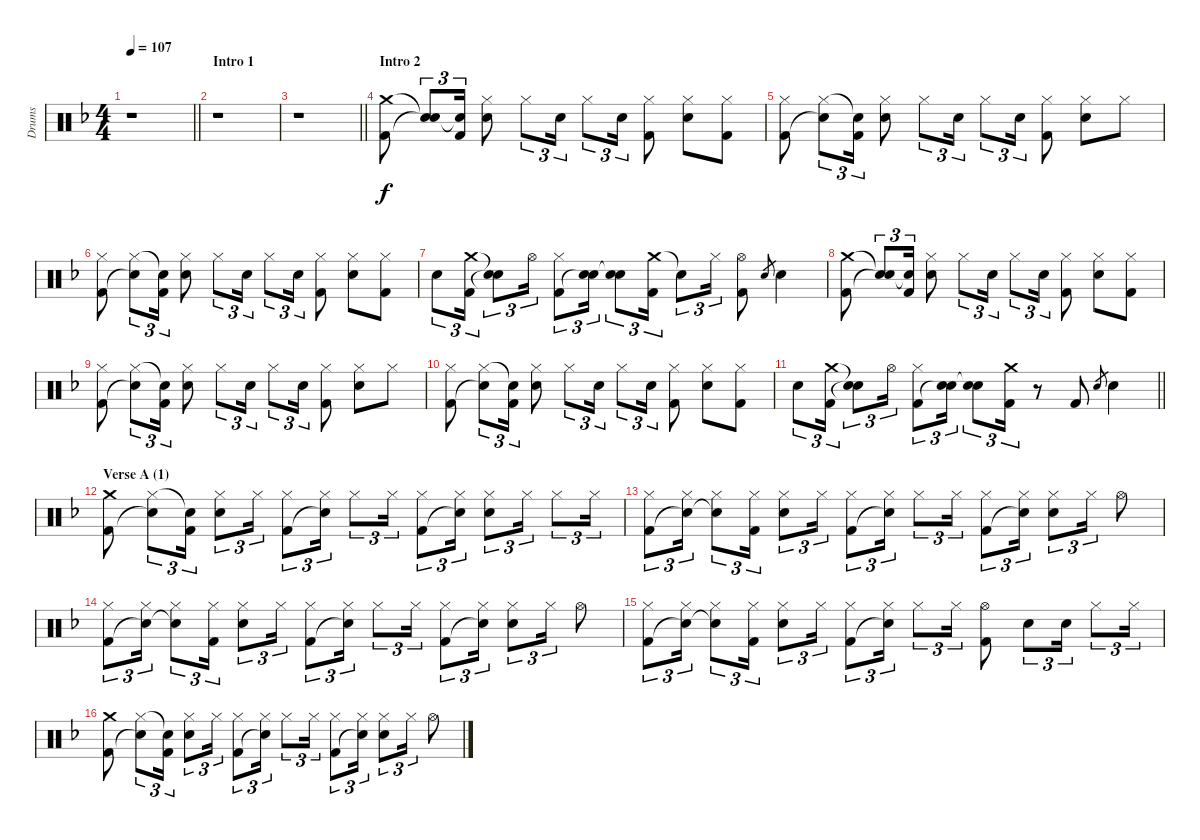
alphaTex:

\track ("Drums" "Drums") {instrument percussion}
\staff {score}
\articulation defaults
\ts (4 4)
\tempo 107
\clef neutral
\barLineRight lightlight
\ks dminor
r.1{dy f} |
\section ("" "Intro 1")
r.1 |
\barLineRight lightlight
r.1 |
\section ("" "Intro 2")
("Crash medium (hit)" "Kick (hit) 2").8 ("Snare (hit)"{t} "Snare (hit)"{t}).8{tu (3 2)} ("Snare (hit)"{t} "Kick (hit) 2").16{tu (3 2)} ("Hi-Hat (closed)" "Electric Snare (hit)").8 "Hi-Hat (closed)".8{tu (3 2)} "Electric Snare (hit)".16{tu (3 2)} "Hi-Hat (closed)".8{tu (3 2)} "Electric Snare (hit)".16{tu (3 2)} ("Hi-Hat (closed)" "Kick (hit) 2").8 ("Hi-Hat (closed)" "Electric Snare (hit)").8 ("Hi-Hat (closed)" "Kick (hit) 2").8 |
("Hi-Hat (closed)" "Kick (hit) 2").8 ("Hi-Hat (closed)" "Snare (hit)"{t}).8{tu (3 2)} ("Snare (hit)"{t} "Kick (hit) 2").16{tu (3 2)} ("Hi-Hat (closed)" "Electric Snare (hit)").8 "Hi-Hat (closed)".8{tu (3 2)} "Electric Snare (hit)".16{tu (3 2)} "Hi-Hat (closed)".8{tu (3 2)} "Electric Snare (hit)".16{tu (3 2)} ("Hi-Hat (closed)" "Kick (hit) 2").8 ("Hi-Hat (closed)" "Electric Snare (hit)").8 "Hi-Hat (closed)".8 |
("Hi-Hat (closed)" "Kick (hit) 2").8 ("Hi-Hat (closed)" "Snare (hit)"{t}).8{tu (3 2)} ("Snare (hit)"{t} "Kick (hit) 2").16{tu (3 2)} ("Hi-Hat (closed)" "Electric Snare (hit)").8 "Hi-Hat (closed)".8{tu (3 2)} "Electric Snare (hit)".16{tu (3 2)} "Hi-Hat (closed)".8{tu (3 2)} "Electric Snare (hit)".16{tu (3 2)} ("Hi-Hat (closed)" "Kick (hit) 2").8 ("Hi-Hat (closed)" "Electric Snare (hit)").8 ("Hi-Hat (closed)" "Kick (hit) 2").8 |
"Electric Snare (hit)".8{tu (3 2)} ("Crash medium (hit)" "Kick (hit) 2").16{tu (3 2)} ("Snare (hit)"{t} "Snare (hit)"{t}).8{tu (3 2)} "Hi-Hat (open)".16{tu (3 2)} ("Hi-Hat (closed)" "Kick (hit) 2").8{tu (3 2)} ("Electric Snare (hit)" "Snare (hit)"{t}).16{tu (3 2)} ("Electric Snare (hit)" "Snare (hit)"{t}).8{tu (3 2)} ("Crash medium (hit)" "Kick (hit) 2").16{tu (3 2)} "Snare (hit)"{t}.8{tu (3 2)} "Hi-Hat (closed)".16{tu (3 2)} ("Hi-Hat (open)" "Kick (hit) 2").8 "Electric Snare (hit)".8{gr} "Electric Snare (hit)".4 |
("Crash medium (hit)" "Kick (hit) 2").8 ("Snare (hit)"{t} "Snare (hit)"{t}).8{tu (3 2)} ("Snare (hit)"{t} "Kick (hit) 2").16{tu (3 2)} ("Hi-Hat (closed)" "Electric Snare (hit)").8 "Hi-Hat (closed)".8{tu (3 2)} "Electric Snare (hit)".16{tu (3 2)} "Hi-Hat (closed)".8{tu (3 2)} "Electric Snare (hit)".16{tu (3 2)} ("Hi-Hat (closed)" "Kick (hit) 2").8 ("Hi-Hat (closed)" "Electric Snare (hit)").8 ("Hi-Hat (closed)" "Kick (hit) 2").8 |
("Hi-Hat (closed)" "Kick (hit) 2").8 ("Hi-Hat (closed)" "Snare (hit)"{t}).8{tu (3 2)} ("Snare (hit)"{t} "Kick (hit) 2").16{tu (3 2)} ("Hi-Hat (closed)" "Electric Snare (hit)").8 "Hi-Hat (closed)".8{tu (3 2)} "Electric Snare (hit)".16{tu (3 2)} "Hi-Hat (closed)".8{tu (3 2)} "Electric Snare (hit)".16{tu (3 2)} ("Hi-Hat (closed)" "Kick (hit) 2").8 ("Hi-Hat (closed)" "Electric Snare (hit)").8 "Hi-Hat (closed)".8 |
("Hi-Hat (closed)" "Kick (hit) 2").8 ("Hi-Hat (closed)" "Snare (hit)"{t}).8{tu (3 2)} ("Snare (hit)"{t} "Kick (hit) 2").16{tu (3 2)} ("Hi-Hat (closed)" "Electric Snare (hit)").8 "Hi-Hat (closed)".8{tu (3 2)} "Electric Snare (hit)".16{tu (3 2)} "Hi-Hat (closed)".8{tu (3 2)} "Electric Snare (hit)".16{tu (3 2)} ("Hi-Hat (closed)" "Kick (hit) 2").8 ("Hi-Hat (closed)" "Electric Snare (hit)").8 ("Hi-Hat (closed)" "Kick (hit) 2").8 |
\barLineRight lightlight "Electric Snare (hit)".8{tu (3 2)}
("Crash medium (hit)" "Kick (hit) 2").16{tu (3 2)} ("Snare (hit)"{t} "Snare (hit)"{t}).8{tu (3 2)} "Hi-Hat (open)".16{tu (3 2)} ("Hi-Hat (closed)" "Kick (hit) 2").8{tu (3 2)} ("Electric Snare (hit)" "Snare (hit)"{t}).16{tu (3 2)} ("Electric Snare (hit)" "Snare (hit)"{t}).8{tu (3 2)} ("Crash medium (hit)" "Kick (hit) 2").16{tu (3 2)} r.8 "Kick (hit) 2".8 "Electric Snare (hit)".8{gr} "Electric Snare (hit)".4 |
\section ("" "Verse A (1)")
("Crash medium (hit)" "Kick (hit) 2").8 ("Hi-Hat (closed)" "Snare (hit)"{t}).8{tu (3 2)} ("Snare (hit)"{t} "Kick (hit) 2").16{tu (3 2)} ("Hi-Hat (closed)" "Electric Snare (hit)").8{tu (3 2)} "Hi-Hat (closed)".16{tu (3 2)} ("Hi-Hat (closed)" "Kick (hit) 2").8{tu (3 2)} ("Hi-Hat (closed)" "Snare (hit)"{t}).16{tu (3 2)} "Hi-Hat (closed)".8{tu (3 2)} "Hi-Hat (closed)".16{tu (3 2)} ("Hi-Hat (closed)" "Kick (hit) 2").8{tu (3 2)} ("Hi-Hat (closed)" "Snare (hit)"{t}).16{tu (3 2)} ("Hi-Hat (closed)" "Electric Snare (hit)").8{tu (3 2)} "Hi-Hat (closed)".16{tu (3 2)} "Hi-Hat (closed)".8{tu (3 2)} "Hi-Hat (closed)".16{tu (3 2)} |
("Hi-Hat (closed)" "Kick (hit) 2").8{tu (3 2)} ("Hi-Hat (closed)" "Snare (hit)"{t}).16{tu (3 2)} ("Hi-Hat (closed)" "Snare (hit)"{t}).8{tu (3 2)} ("Hi-Hat (closed)" "Kick (hit) 2").16{tu (3 2)} ("Hi-Hat (closed)" "Electric Snare (hit)").8{tu (3 2)} "Hi-Hat (closed)".16{tu (3 2)} ("Hi-Hat (closed)" "Kick (hit) 2").8{tu (3 2)} ("Hi-Hat (closed)" "Snare (hit)"{t}).16{tu (3 2)} "Hi-Hat (closed)".8{tu (3 2)} "Hi-Hat (closed)".16{tu (3 2)} ("Hi-Hat (closed)" "Kick (hit) 2").8{tu (3 2)} ("Hi-Hat (closed)" "Snare (hit)"{t}).16{tu (3 2)} ("Hi-Hat (closed)" "Electric Snare (hit)").8{tu (3 2)} "Hi-Hat (closed)".16{tu (3 2)} "Hi-Hat (open)".8 |
("Hi-Hat (closed)" "Kick (hit) 2").8{tu (3 2)} ("Hi-Hat (closed)" "Snare (hit)"{t}).16{tu (3 2)} ("Hi-Hat (closed)" "Snare (hit)"{t}).8{tu (3 2)} ("Hi-Hat (closed)" "Kick (hit) 2").16{tu (3 2)} ("Hi-Hat (closed)" "Electric Snare (hit)").8{tu (3 2)} "Hi-Hat (closed)".16{tu (3 2)} ("Hi-Hat (closed)" "Kick (hit) 2").8{tu (3 2)} ("Hi-Hat (closed)" "Snare (hit)"{t}).16{tu (3 2)} "Hi-Hat (closed)".8{tu (3 2)} "Hi-Hat (closed)".16{tu (3 2)} ("Hi-Hat (closed)" "Kick (hit) 2").8{tu (3 2)} ("Hi-Hat (closed)" "Snare (hit)"{t}).16{tu (3 2)} ("Hi-Hat (closed)" "Electric Snare (hit)").8{tu (3 2)} "Hi-Hat (closed)".16{tu (3 2)} "Hi-Hat (open)".8 |
("Hi-Hat (closed)" "Kick (hit) 2").8{tu (3 2)} ("Hi-Hat (closed)" "Snare (hit)"{t}).16{tu (3 2)} ("Hi-Hat (closed)" "Snare (hit)"{t}).8{tu (3 2)} ("Hi-Hat (closed)" "Kick (hit) 2").16{tu (3 2)} ("Hi-Hat (closed)" "Electric Snare (hit)").8{tu (3 2)} "Hi-Hat (closed)".16{tu (3 2)} ("Hi-Hat (closed)" "Kick (hit) 2").8{tu (3 2)} ("Hi-Hat (closed)" "Snare (hit)"{t}).16{tu (3 2)} "Hi-Hat (closed)".8{tu (3 2)} "Hi-Hat (closed)".16{tu (3 2)} ("Hi-Hat (open)" "Kick (hit) 2").8 "Electric Snare (hit)".8{tu (3 2)} "Electric Snare (hit)".16{tu (3 2)} "Hi-Hat (closed)".8{tu (3 2)} "Hi-Hat (closed)".16{tu (3 2)} |
("Crash medium (hit)" "Kick (hit) 2").8 ("Hi-Hat (closed)" "Snare (hit)"{t}).8{tu (3 2)} ("Snare (hit)"{t} "Kick (hit) 2").16{tu (3 2)} ("Hi-Hat (closed)" "Electric Snare (hit)").8{tu (3 2)} "Hi-Hat (closed)".16{tu (3 2)} ("Hi-Hat (closed)" "Kick (hit) 2").8{tu (3 2)} ("Hi-Hat (closed)" "Snare (hit)"{t}).16{tu (3 2)} "Hi-Hat (closed)".8{tu (3 2)} "Hi-Hat (closed)".16{tu (3 2)} ("Hi-Hat (closed)" "Kick (hit) 2").8{tu (3 2)} ("Hi-Hat (closed)" "Snare (hit)"{t}).16{tu (3 2)} ("Hi-Hat (closed)" "Electric Snare (hit)").8{tu (3 2)} "Hi-Hat (closed)".16{tu (3 2)} "Hi-Hat (open)".8
